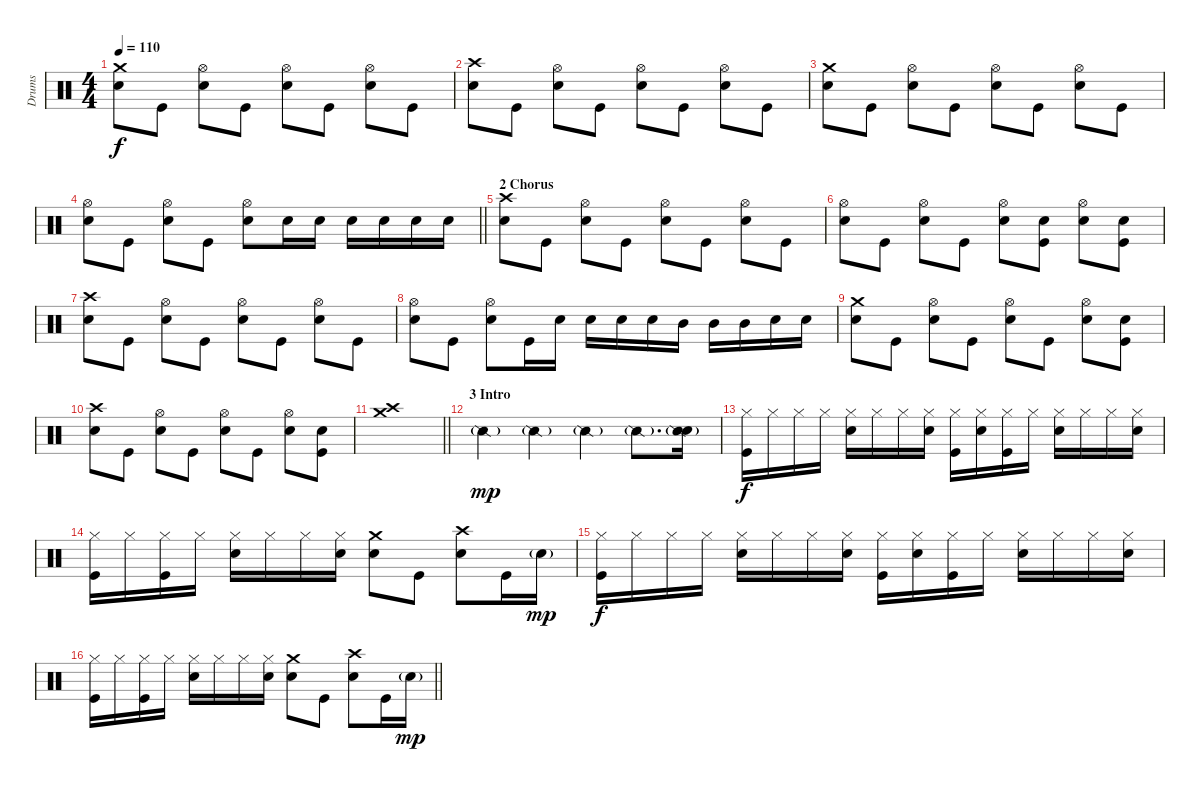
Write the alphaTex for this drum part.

\track ("Drums" "Drums") {instrument percussion}
\staff {score}
\articulation defaults
\ts (4 4)
\tempo 110
\clef neutral
\ks c
("Electric Snare (hit)" "Crash medium (hit)").8{dy f} "Kick (hit)".8 ("Hi-Hat (open)" "Electric Snare (hit)").8 "Kick (hit)".8 ("Hi-Hat (open)" "Electric Snare (hit)").8 "Kick (hit)".8 ("Hi-Hat (open)" "Electric Snare (hit)").8 "Kick (hit)".8 |
("Electric Snare (hit)" "Crash high (hit)").8 "Kick (hit)".8 ("Hi-Hat (open)" "Electric Snare (hit)").8 "Kick (hit)".8 ("Hi-Hat (open)" "Electric Snare (hit)").8 "Kick (hit)".8 ("Hi-Hat (open)" "Electric Snare (hit)").8 "Kick (hit)".8 |
("Electric Snare (hit)" "Crash medium (hit)").8 "Kick (hit)".8 ("Hi-Hat (open)" "Electric Snare (hit)").8 "Kick (hit)".8 ("Hi-Hat (open)" "Electric Snare (hit)").8 "Kick (hit)".8 ("Hi-Hat (open)" "Electric Snare (hit)").8 "Kick (hit)".8 |
\barLineRight lightlight
("Hi-Hat (open)" "Electric Snare (hit)").8 "Kick (hit)".8 ("Hi-Hat (open)" "Electric Snare (hit)").8 "Kick (hit)".8 ("Hi-Hat (open)" "Electric Snare (hit)").8 "Electric Snare (hit)".16 "Electric Snare (hit)".16 "Electric Snare (hit)".16 "Electric Snare (hit)".16 "Electric Snare (hit)".16 "Electric Snare (hit)".16 |
\section ("" "2 Chorus")
("Electric Snare (hit)" "Crash high (hit)").8 "Kick (hit)".8 ("Hi-Hat (open)" "Electric Snare (hit)").8 "Kick (hit)".8 ("Hi-Hat (open)" "Electric Snare (hit)").8 "Kick (hit)".8 ("Hi-Hat (open)" "Electric Snare (hit)").8 "Kick (hit)".8 |
("Hi-Hat (open)" "Electric Snare (hit)").8 "Kick (hit)".8 ("Hi-Hat (open)" "Electric Snare (hit)").8 "Kick (hit)".8 ("Hi-Hat (open)" "Electric Snare (hit)").8 ("Kick (hit)" "Electric Snare (hit)").8 ("Hi-Hat (open)" "Electric Snare (hit)").8 ("Kick (hit)" "Electric Snare (hit)").8 |
("Electric Snare (hit)" "Crash high (hit)").8 "Kick (hit)".8 ("Hi-Hat (open)" "Electric Snare (hit)").8 "Kick (hit)".8 ("Hi-Hat (open)" "Electric Snare (hit)").8 "Kick (hit)".8 ("Hi-Hat (open)" "Electric Snare (hit)").8 "Kick (hit)".8 |
("Hi-Hat (open)" "Electric Snare (hit)").8 "Kick (hit)".8 ("Hi-Hat (open)" "Electric Snare (hit)").8 "Kick (hit)".16 "Electric Snare (hit)".16 "Electric Snare (hit)".16 "Electric Snare (hit)".16 "Electric Snare (hit)".16 "Mid Tom (hit)".16 "Mid Tom (hit)".16 "Mid Tom (hit)".16 "Electric Snare (hit)".16 "Electric Snare (hit)".16 |
("Electric Snare (hit)" "Crash medium (hit)").8 "Kick (hit)".8 ("Hi-Hat (open)" "Electric Snare (hit)").8 "Kick (hit)".8 ("Hi-Hat (open)" "Electric Snare (hit)").8 "Kick (hit)".8 ("Hi-Hat (open)" "Electric Snare (hit)").8 ("Kick (hit)" "Electric Snare (hit)").8 |
("Electric Snare (hit)" "Crash high (hit)").8 "Kick (hit)".8 ("Hi-Hat (open)" "Electric Snare (hit)").8 "Kick (hit)".8 ("Hi-Hat (open)" "Electric Snare (hit)").8 "Kick (hit)".8 ("Hi-Hat (open)" "Electric Snare (hit)").8 ("Kick (hit)" "Electric Snare (hit)").8 |
\barLineRight lightlight
("Crash high (hit)" "Crash medium (hit)").1 |
\section ("" "3 Intro")
"Snare (side stick) 2"{g}.4{dy mp} "Snare (side stick) 2"{g}.4 "Snare (side stick) 2"{g}.4 "Snare (side stick) 2"{g}.8{d} ("Electric Snare (hit)"{g} "Snare (side stick) 2"{g}).16 |
("Kick (hit)" "Hi-Hat (closed)").16{dy f} "Hi-Hat (closed)".16 "Hi-Hat (closed)".16 "Hi-Hat (closed)".16 ("Hi-Hat (closed)" "Electric Snare (hit)").16 "Hi-Hat (closed)".16 "Hi-Hat (closed)".16 ("Hi-Hat (closed)" "Electric Snare (hit)").16 ("Kick (hit)" "Hi-Hat (closed)").16 ("Hi-Hat (closed)" "Electric Snare (hit)").16 ("Kick (hit)" "Hi-Hat (closed)").16 "Hi-Hat (closed)".16 ("Hi-Hat (closed)" "Electric Snare (hit)").16 "Hi-Hat (closed)".16 "Hi-Hat (closed)".16 ("Hi-Hat (closed)" "Electric Snare (hit)").16 |
("Kick (hit)" "Hi-Hat (closed)").16 "Hi-Hat (closed)".16 ("Kick (hit)" "Hi-Hat (closed)").16 "Hi-Hat (closed)".16 ("Hi-Hat (closed)" "Electric Snare (hit)").16 "Hi-Hat (closed)".16 "Hi-Hat (closed)".16 ("Hi-Hat (closed)" "Electric Snare (hit)").16 ("Electric Snare (hit)" "Crash medium (hit)").8 "Kick (hit)".8 ("Electric Snare (hit)" "Crash high (hit)").8 "Kick (hit)".16 "Electric Snare (hit)"{g}.16{dy mp} |
("Kick (hit)" "Hi-Hat (closed)").16{dy f} "Hi-Hat (closed)".16 "Hi-Hat (closed)".16 "Hi-Hat (closed)".16 ("Hi-Hat (closed)" "Electric Snare (hit)").16 "Hi-Hat (closed)".16 "Hi-Hat (closed)".16 ("Hi-Hat (closed)" "Electric Snare (hit)").16 ("Kick (hit)" "Hi-Hat (closed)").16 ("Hi-Hat (closed)" "Electric Snare (hit)").16 ("Kick (hit)" "Hi-Hat (closed)").16 "Hi-Hat (closed)".16 ("Hi-Hat (closed)" "Electric Snare (hit)").16 "Hi-Hat (closed)".16 "Hi-Hat (closed)".16 ("Hi-Hat (closed)" "Electric Snare (hit)").16 |
\barLineRight lightlight
("Kick (hit)" "Hi-Hat (closed)").16 "Hi-Hat (closed)".16 ("Kick (hit)" "Hi-Hat (closed)").16 "Hi-Hat (closed)".16 ("Hi-Hat (closed)" "Electric Snare (hit)").16 "Hi-Hat (closed)".16 "Hi-Hat (closed)".16 ("Hi-Hat (closed)" "Electric Snare (hit)").16 ("Electric Snare (hit)" "Crash medium (hit)").8 "Kick (hit)".8 ("Electric Snare (hit)" "Crash high (hit)").8 "Kick (hit)".16 "Electric Snare (hit)"{g}.16{dy mp}
